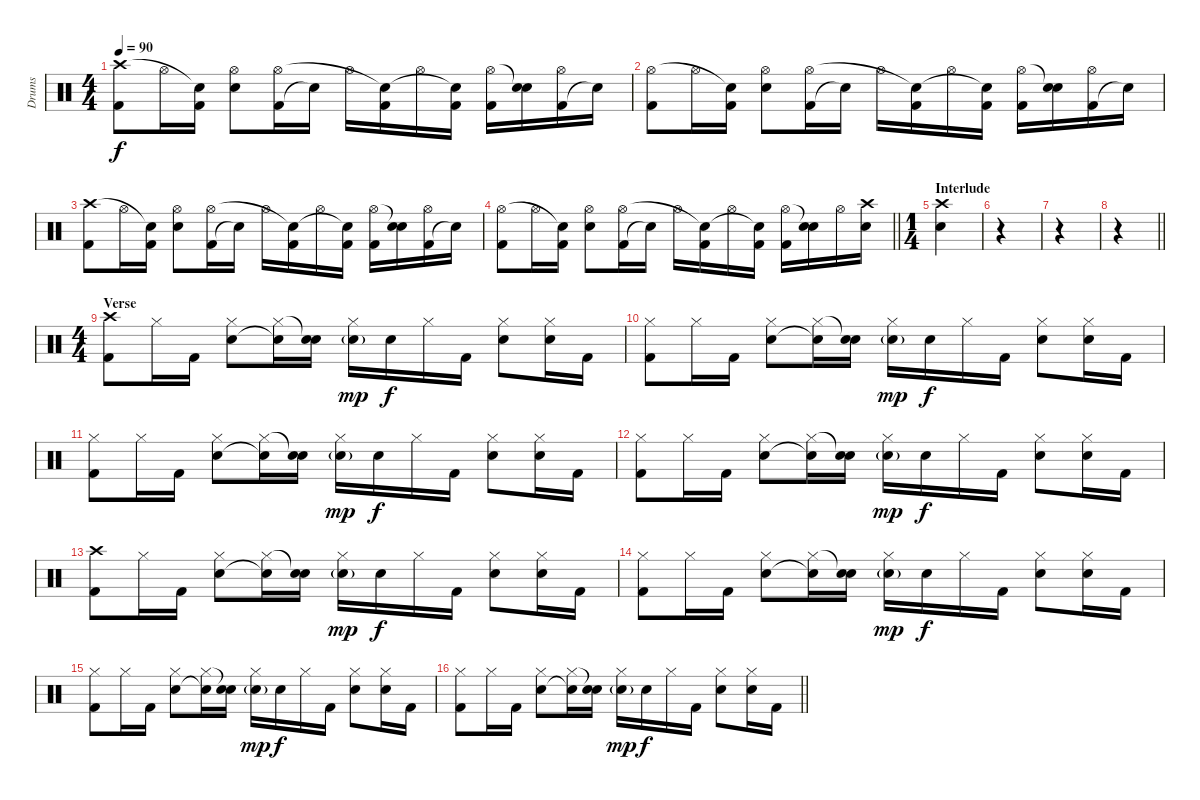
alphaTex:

\track ("Drums" "Drums") {instrument percussion}
\staff {score}
\articulation defaults
\ts (4 4)
\tempo 90
\clef neutral
\ks c
("Kick (hit) 2" "Crash high (hit)").8{dy f} "Hi-Hat (open)".16 ("Kick (hit) 2" "Snare (hit)"{t}).16 ("Snare (hit) 2" "Hi-Hat (open)").8 ("Kick (hit) 2" "Hi-Hat (open)").16 "Snare (hit)"{t}.16 "Hi-Hat (open)".16 ("Kick (hit) 2" "Snare (hit)"{t}).16 "Hi-Hat (open)".16 ("Kick (hit) 2" "Snare (hit)"{t}).16 ("Kick (hit) 2" "Hi-Hat (open)").16 ("Snare (hit) 2" "Snare (hit)"{t}).16 ("Kick (hit) 2" "Hi-Hat (open)").16 "Snare (hit)"{t}.16 |
("Kick (hit) 2" "Hi-Hat (open)").8 "Hi-Hat (open)".16 ("Kick (hit) 2" "Snare (hit)"{t}).16 ("Snare (hit) 2" "Hi-Hat (open)").8 ("Kick (hit) 2" "Hi-Hat (open)").16 "Snare (hit)"{t}.16 "Hi-Hat (open)".16 ("Kick (hit) 2" "Snare (hit)"{t}).16 "Hi-Hat (open)".16 ("Kick (hit) 2" "Snare (hit)"{t}).16 ("Kick (hit) 2" "Hi-Hat (open)").16 ("Snare (hit) 2" "Snare (hit)"{t}).16 ("Kick (hit) 2" "Hi-Hat (open)").16 "Snare (hit)"{t}.16 |
("Kick (hit) 2" "Crash high (hit)").8 "Hi-Hat (open)".16 ("Kick (hit) 2" "Snare (hit)"{t}).16 ("Snare (hit) 2" "Hi-Hat (open)").8 ("Kick (hit) 2" "Hi-Hat (open)").16 "Snare (hit)"{t}.16 "Hi-Hat (open)".16 ("Kick (hit) 2" "Snare (hit)"{t}).16 "Hi-Hat (open)".16 ("Kick (hit) 2" "Snare (hit)"{t}).16 ("Kick (hit) 2" "Hi-Hat (open)").16 ("Snare (hit) 2" "Snare (hit)"{t}).16 ("Kick (hit) 2" "Hi-Hat (open)").16 "Snare (hit)"{t}.16 |
\barLineRight lightlight
("Kick (hit) 2" "Hi-Hat (open)").8 "Hi-Hat (open)".16 ("Kick (hit) 2" "Snare (hit)"{t}).16 ("Snare (hit) 2" "Hi-Hat (open)").8 ("Kick (hit) 2" "Hi-Hat (open)").16 "Snare (hit)"{t}.16 "Hi-Hat (open)".16 ("Kick (hit) 2" "Snare (hit)"{t}).16 "Hi-Hat (open)".16 ("Kick (hit) 2" "Snare (hit)"{t}).16 ("Kick (hit) 2" "Hi-Hat (open)").16 ("Snare (hit) 2" "Snare (hit)"{t}).16 "Hi-Hat (open)".16 ("Snare (hit) 2" "Crash high (hit)").16 |
\ts (1 4)
\section ("" "Interlude")
("Snare (hit) 2" "Crash high (hit)").4 |
r.4 |
r.4 |
\barLineRight lightlight
r.4 |
\ts (4 4)
\section ("" "Verse")
("Kick (hit) 2" "Crash high (hit)").8 "Hi-Hat (closed)".16 "Kick (hit) 2".16 ("Snare (hit) 2" "Hi-Hat (closed)").8 ("Snare (hit)"{t} "Hi-Hat (closed)").16 ("Snare (hit) 2" "Snare (hit)"{t}).16 ("Snare (hit) 2"{g} "Hi-Hat (closed)").16{dy mp} "Snare (hit) 2".16{dy f} "Hi-Hat (closed)".16 "Kick (hit) 2".16 ("Snare (hit) 2" "Hi-Hat (closed)").8 ("Snare (hit) 2" "Hi-Hat (closed)").16 "Kick (hit) 2".16 |
("Kick (hit) 2" "Hi-Hat (closed)").8 "Hi-Hat (closed)".16 "Kick (hit) 2".16 ("Snare (hit) 2" "Hi-Hat (closed)").8 ("Snare (hit)"{t} "Hi-Hat (closed)").16 ("Snare (hit) 2" "Snare (hit)"{t}).16 ("Snare (hit) 2"{g} "Hi-Hat (closed)").16{dy mp} "Snare (hit) 2".16{dy f} "Hi-Hat (closed)".16 "Kick (hit) 2".16 ("Snare (hit) 2" "Hi-Hat (closed)").8 ("Snare (hit) 2" "Hi-Hat (closed)").16 "Kick (hit) 2".16 |
("Kick (hit) 2" "Hi-Hat (closed)").8 "Hi-Hat (closed)".16 "Kick (hit) 2".16 ("Snare (hit) 2" "Hi-Hat (closed)").8 ("Snare (hit)"{t} "Hi-Hat (closed)").16 ("Snare (hit) 2" "Snare (hit)"{t}).16 ("Snare (hit) 2"{g} "Hi-Hat (closed)").16{dy mp} "Snare (hit) 2".16{dy f} "Hi-Hat (closed)".16 "Kick (hit) 2".16 ("Snare (hit) 2" "Hi-Hat (closed)").8 ("Snare (hit) 2" "Hi-Hat (closed)").16 "Kick (hit) 2".16 |
("Kick (hit) 2" "Hi-Hat (closed)").8 "Hi-Hat (closed)".16 "Kick (hit) 2".16 ("Snare (hit) 2" "Hi-Hat (closed)").8 ("Snare (hit)"{t} "Hi-Hat (closed)").16 ("Snare (hit) 2" "Snare (hit)"{t}).16 ("Snare (hit) 2"{g} "Hi-Hat (closed)").16{dy mp} "Snare (hit) 2".16{dy f} "Hi-Hat (closed)".16 "Kick (hit) 2".16 ("Snare (hit) 2" "Hi-Hat (closed)").8 ("Snare (hit) 2" "Hi-Hat (closed)").16 "Kick (hit) 2".16 |
("Kick (hit) 2" "Crash high (hit)").8 "Hi-Hat (closed)".16 "Kick (hit) 2".16 ("Snare (hit) 2" "Hi-Hat (closed)").8 ("Snare (hit)"{t} "Hi-Hat (closed)").16 ("Snare (hit) 2" "Snare (hit)"{t}).16 ("Snare (hit) 2"{g} "Hi-Hat (closed)").16{dy mp} "Snare (hit) 2".16{dy f} "Hi-Hat (closed)".16 "Kick (hit) 2".16 ("Snare (hit) 2" "Hi-Hat (closed)").8 ("Snare (hit) 2" "Hi-Hat (closed)").16 "Kick (hit) 2".16 |
("Kick (hit) 2" "Hi-Hat (closed)").8 "Hi-Hat (closed)".16 "Kick (hit) 2".16 ("Snare (hit) 2" "Hi-Hat (closed)").8 ("Snare (hit)"{t} "Hi-Hat (closed)").16 ("Snare (hit) 2" "Snare (hit)"{t}).16 ("Snare (hit) 2"{g} "Hi-Hat (closed)").16{dy mp} "Snare (hit) 2".16{dy f} "Hi-Hat (closed)".16 "Kick (hit) 2".16 ("Snare (hit) 2" "Hi-Hat (closed)").8 ("Snare (hit) 2" "Hi-Hat (closed)").16 "Kick (hit) 2".16 |
("Kick (hit) 2" "Hi-Hat (closed)").8 "Hi-Hat (closed)".16 "Kick (hit) 2".16 ("Snare (hit) 2" "Hi-Hat (closed)").8 ("Snare (hit)"{t} "Hi-Hat (closed)").16 ("Snare (hit) 2" "Snare (hit)"{t}).16 ("Snare (hit) 2"{g} "Hi-Hat (closed)").16{dy mp} "Snare (hit) 2".16{dy f} "Hi-Hat (closed)".16 "Kick (hit) 2".16 ("Snare (hit) 2" "Hi-Hat (closed)").8 ("Snare (hit) 2" "Hi-Hat (closed)").16 "Kick (hit) 2".16 |
\barLineRight lightlight
("Kick (hit) 2" "Hi-Hat (closed)").8 "Hi-Hat (closed)".16 "Kick (hit) 2".16 ("Snare (hit) 2" "Hi-Hat (closed)").8 ("Snare (hit)"{t} "Hi-Hat (closed)").16 ("Snare (hit) 2" "Snare (hit)"{t}).16 ("Snare (hit) 2"{g} "Hi-Hat (closed)").16{dy mp} "Snare (hit) 2".16{dy f} "Hi-Hat (closed)".16 "Kick (hit) 2".16 ("Snare (hit) 2" "Hi-Hat (closed)").8 ("Snare (hit) 2" "Hi-Hat (closed)").16 "Kick (hit) 2".16
